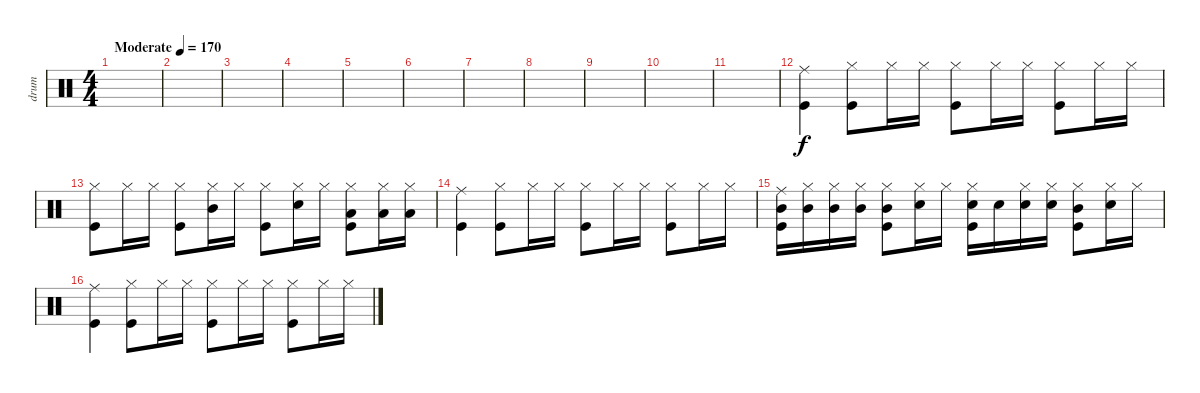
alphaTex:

\track ("drum" "drum") {instrument percussion}
\staff {score}
\articulation defaults
\ts (4 4)
\tempo (170 "Moderate")
\clef neutral
\ks c
|
|
|
|
|
|
|
|
|
|
|
("Ride (middle)" "Kick (hit)").4 ("Hi-Hat (closed)" "Kick (hit)").8 "Hi-Hat (closed)".16 "Hi-Hat (closed)".16 ("Hi-Hat (closed)" "Kick (hit)").8 "Hi-Hat (closed)".16 "Hi-Hat (closed)".16 ("Hi-Hat (closed)" "Kick (hit)").8 "Hi-Hat (closed)".16 "Hi-Hat (closed)".16 |
("Hi-Hat (closed)" "Kick (hit)").8 "Hi-Hat (closed)".16 "Hi-Hat (closed)".16 ("Hi-Hat (closed)" "Kick (hit)").8 ("Hi-Hat (closed)" "Mid Tom (hit)").16 "Hi-Hat (closed)".16 ("Hi-Hat (closed)" "Kick (hit)").8 ("Hi-Hat (closed)" "Snare (hit) 2").16 "Hi-Hat (closed)".16 ("Hi-Hat (closed)" "Low Floor Tom (hit)" "Kick (hit)").8 ("Hi-Hat (closed)" "Low Floor Tom (hit)").16 ("Hi-Hat (closed)" "Low Floor Tom (hit)").16 |
("Ride (middle)" "Kick (hit)").4 ("Hi-Hat (closed)" "Kick (hit)").8 "Hi-Hat (closed)".16 "Hi-Hat (closed)".16 ("Hi-Hat (closed)" "Kick (hit)").8 "Hi-Hat (closed)".16 "Hi-Hat (closed)".16 ("Hi-Hat (closed)" "Kick (hit)").8 "Hi-Hat (closed)".16 "Hi-Hat (closed)".16 |
("Ride (middle)" "Kick (hit)" "Mid Tom (hit)").16 ("Hi-Hat (closed)" "Mid Tom (hit)").16 ("Hi-Hat (closed)" "Mid Tom (hit)").16 ("Hi-Hat (closed)" "Mid Tom (hit)").16 ("Hi-Hat (closed)" "Kick (hit)" "Mid Tom (hit)").8 ("Hi-Hat (closed)" "Snare (hit) 2").16 "Hi-Hat (closed)".16 ("Hi-Hat (closed)" "Kick (hit)" "Snare (hit) 2").16 "Snare (hit) 2".16 ("Hi-Hat (closed)" "Snare (hit) 2").16 ("Hi-Hat (closed)" "Snare (hit) 2").16 ("Hi-Hat (closed)" "Kick (hit)" "Mid Tom (hit)").8 ("Hi-Hat (closed)" "Snare (hit) 2").16 "Hi-Hat (closed)".16 |
("Ride (middle)" "Kick (hit)").4 ("Hi-Hat (closed)" "Kick (hit)").8 "Hi-Hat (closed)".16 "Hi-Hat (closed)".16 ("Hi-Hat (closed)" "Kick (hit)").8 "Hi-Hat (closed)".16 "Hi-Hat (closed)".16 ("Hi-Hat (closed)" "Kick (hit)").8 "Hi-Hat (closed)".16 "Hi-Hat (closed)".16
